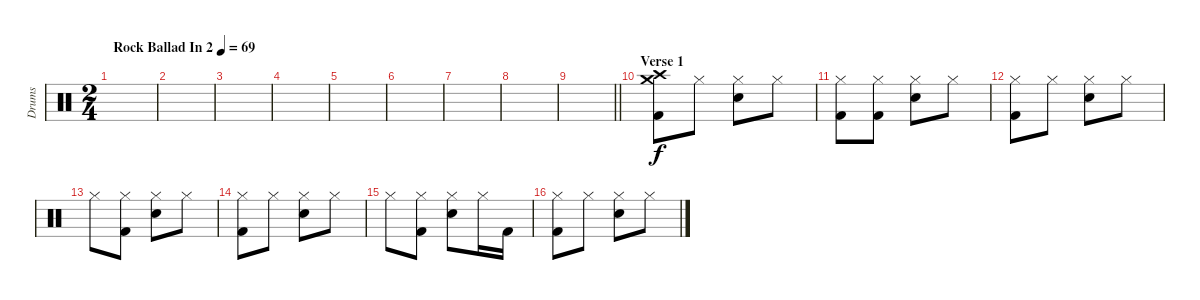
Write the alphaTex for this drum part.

\track ("Drums" "Drums") {instrument percussion}
\staff {score}
\articulation defaults
\ts (2 4)
\tempo (69 "Rock Ballad In 2")
\clef neutral
\ks c
|
|
|
|
|
|
|
|
\barLineRight lightlight
|
\section ("" "Verse 1")
("Kick (hit) 2" "Crash high (hit)" "Crash medium (hit)").8 "Hi-Hat (closed)".8 ("Electric Snare (hit)" "Hi-Hat (closed)").8 "Hi-Hat (closed)".8 |
("Kick (hit) 2" "Hi-Hat (closed)").8 ("Kick (hit) 2" "Hi-Hat (closed)").8 ("Electric Snare (hit)" "Hi-Hat (closed)").8 "Hi-Hat (closed)".8 |
("Kick (hit) 2" "Hi-Hat (closed)").8 "Hi-Hat (closed)".8 ("Electric Snare (hit)" "Hi-Hat (closed)").8 "Hi-Hat (closed)".8 |
"Hi-Hat (closed)".8 ("Kick (hit) 2" "Hi-Hat (closed)").8 ("Electric Snare (hit)" "Hi-Hat (closed)").8 "Hi-Hat (closed)".8 |
("Kick (hit) 2" "Hi-Hat (closed)").8 "Hi-Hat (closed)".8 ("Electric Snare (hit)" "Hi-Hat (closed)").8 "Hi-Hat (closed)".8 |
"Hi-Hat (closed)".8 ("Kick (hit) 2" "Hi-Hat (closed)").8 ("Electric Snare (hit)" "Hi-Hat (closed)").8 "Hi-Hat (closed)".16 "Kick (hit) 2".16 |
("Kick (hit) 2" "Hi-Hat (closed)").8 "Hi-Hat (closed)".8 ("Electric Snare (hit)" "Hi-Hat (closed)").8 "Hi-Hat (closed)".8
